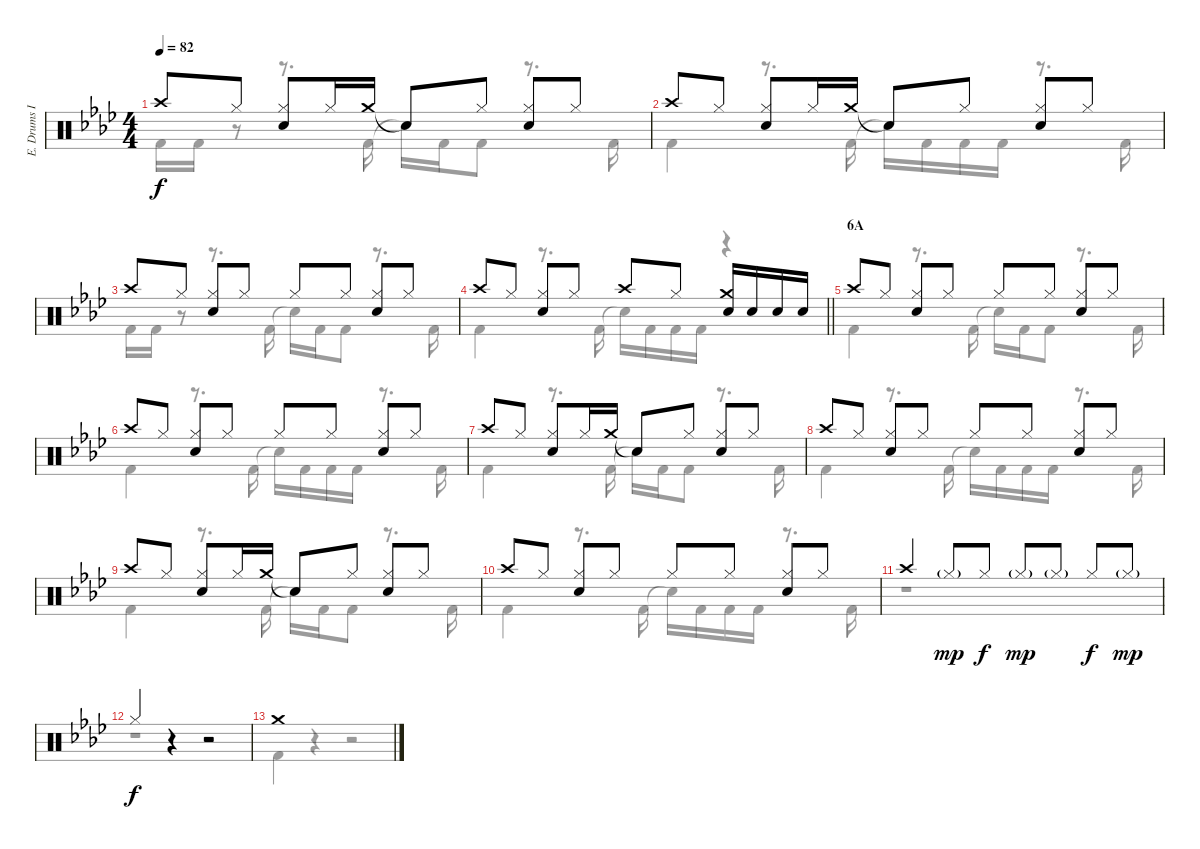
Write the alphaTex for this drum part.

\track ("E. Drums I" "E. Drums I") {instrument percussion}
\staff {score}
\articulation defaults
\voice
\ts (4 4)
\tempo 82
\clef neutral
\ks ab "Crash high (hit)".8{dy f} "Hi-Hat (closed)".8
("Hi-Hat (closed)" "Electric Snare (hit)").8 "Hi-Hat (closed)".16 "Crash medium (hit)".16 "Snare (hit)"{t}.8 "Hi-Hat (closed)".8 ("Hi-Hat (closed)" "Electric Snare (hit)").8 "Hi-Hat (closed)".8 |
"Crash high (hit)".8 "Hi-Hat (closed)".8 ("Hi-Hat (closed)" "Electric Snare (hit)").8 "Hi-Hat (closed)".16 "Crash medium (hit)".16 "Snare (hit)"{t}.8 "Hi-Hat (closed)".8 ("Hi-Hat (closed)" "Electric Snare (hit)").8 "Hi-Hat (closed)".8 |
"Crash high (hit)".8 "Hi-Hat (closed)".8 ("Hi-Hat (closed)" "Electric Snare (hit)").8 "Hi-Hat (closed)".8 "Hi-Hat (closed)".8 "Hi-Hat (closed)".8 ("Hi-Hat (closed)" "Electric Snare (hit)").8 "Hi-Hat (closed)".8 |
\barLineRight lightlight "Crash high (hit)".8 "Hi-Hat (closed)".8
("Hi-Hat (closed)" "Electric Snare (hit)").8 "Hi-Hat (closed)".8 "Crash high (hit)".8 "Hi-Hat (closed)".8 ("Crash medium (hit)" "Electric Snare (hit)").16 "Electric Snare (hit)".16 "Electric Snare (hit)".16 "Electric Snare (hit)".16 |
\section ("" "6A")
"Crash high (hit)".8 "Hi-Hat (closed)".8 ("Hi-Hat (closed)" "Electric Snare (hit)").8 "Hi-Hat (closed)".8 "Hi-Hat (closed)".8 "Hi-Hat (closed)".8 ("Hi-Hat (closed)" "Electric Snare (hit)").8 "Hi-Hat (closed)".8 |
"Crash high (hit)".8 "Hi-Hat (closed)".8 ("Hi-Hat (closed)" "Electric Snare (hit)").8 "Hi-Hat (closed)".8 "Hi-Hat (closed)".8 "Hi-Hat (closed)".8 ("Hi-Hat (closed)" "Electric Snare (hit)").8 "Hi-Hat (closed)".8 |
"Crash high (hit)".8 "Hi-Hat (closed)".8 ("Hi-Hat (closed)" "Electric Snare (hit)").8 "Hi-Hat (closed)".16 "Crash medium (hit)".16 "Snare (hit)"{t}.8 "Hi-Hat (closed)".8 ("Hi-Hat (closed)" "Electric Snare (hit)").8 "Hi-Hat (closed)".8 |
"Crash high (hit)".8 "Hi-Hat (closed)".8 ("Hi-Hat (closed)" "Electric Snare (hit)").8 "Hi-Hat (closed)".8 "Hi-Hat (closed)".8 "Hi-Hat (closed)".8 ("Hi-Hat (closed)" "Electric Snare (hit)").8 "Hi-Hat (closed)".8 |
"Crash high (hit)".8 "Hi-Hat (closed)".8 ("Hi-Hat (closed)" "Electric Snare (hit)").8 "Hi-Hat (closed)".16 "Crash medium (hit)".16 "Snare (hit)"{t}.8 "Hi-Hat (closed)".8 ("Hi-Hat (closed)" "Electric Snare (hit)").8 "Hi-Hat (closed)".8 |
"Crash high (hit)".8 "Hi-Hat (closed)".8 ("Hi-Hat (closed)" "Electric Snare (hit)").8 "Hi-Hat (closed)".8 "Hi-Hat (closed)".8 "Hi-Hat (closed)".8 ("Hi-Hat (closed)" "Electric Snare (hit)").8 "Hi-Hat (closed)".8 |
"Crash high (hit)".4 "Hi-Hat (closed)"{g}.8{dy mp} "Hi-Hat (closed)".8{dy f} "Hi-Hat (closed)"{g}.8{dy mp} "Hi-Hat (closed)"{g}.8 "Hi-Hat (closed)".8{dy f} "Hi-Hat (closed)"{g}.8{dy mp} |
"Hi-Hat (closed)".4{dy f} r.4 r.2 |
"Crash medium (hit)".1
\voice
\clef neutral
\ottava regular
\simile none
\ks ab "Kick (hit) 2".16{dy f} "Kick (hit) 2".16
r.8 r.8{d} "Kick (hit) 2".16 "Snare (hit)"{t}.16 "Kick (hit) 2".16 "Kick (hit) 2".8 r.8{d} "Kick (hit) 2".16 |
"Kick (hit) 2".4 r.8{d} "Kick (hit) 2".16 "Snare (hit)"{t}.16 "Kick (hit) 2".16 "Kick (hit) 2".16 "Kick (hit) 2".16 r.8{d} "Kick (hit) 2".16 |
"Kick (hit) 2".16 "Kick (hit) 2".16 r.8 r.8{d} "Kick (hit) 2".16 "Snare (hit)"{t}.16 "Kick (hit) 2".16 "Kick (hit) 2".8 r.8{d} "Kick (hit) 2".16 |
\barLineRight lightlight "Kick (hit) 2".4
r.8{d} "Kick (hit) 2".16 "Snare (hit)"{t}.16 "Kick (hit) 2".16 "Kick (hit) 2".16 "Kick (hit) 2".16 r.4 |
"Kick (hit) 2".4 r.8{d} "Kick (hit) 2".16 "Snare (hit)"{t}.16 "Kick (hit) 2".16 "Kick (hit) 2".8 r.8{d} "Kick (hit) 2".16 |
"Kick (hit) 2".4 r.8{d} "Kick (hit) 2".16 "Snare (hit)"{t}.16 "Kick (hit) 2".16 "Kick (hit) 2".16 "Kick (hit) 2".16 r.8{d} "Kick (hit) 2".16 |
"Kick (hit) 2".4 r.8{d} "Kick (hit) 2".16 "Snare (hit)"{t}.16 "Kick (hit) 2".16 "Kick (hit) 2".8 r.8{d} "Kick (hit) 2".16 |
"Kick (hit) 2".4 r.8{d} "Kick (hit) 2".16 "Snare (hit)"{t}.16 "Kick (hit) 2".16 "Kick (hit) 2".16 "Kick (hit) 2".16 r.8{d} "Kick (hit) 2".16 |
"Kick (hit) 2".4 r.8{d} "Kick (hit) 2".16 "Snare (hit)"{t}.16 "Kick (hit) 2".16 "Kick (hit) 2".8 r.8{d} "Kick (hit) 2".16 |
"Kick (hit) 2".4 r.8{d} "Kick (hit) 2".16 "Snare (hit)"{t}.16 "Kick (hit) 2".16 "Kick (hit) 2".16 "Kick (hit) 2".16 r.8{d} "Kick (hit) 2".16 |
r.1 |
r.1 |
"Kick (hit) 2".4 r.4 r.2
